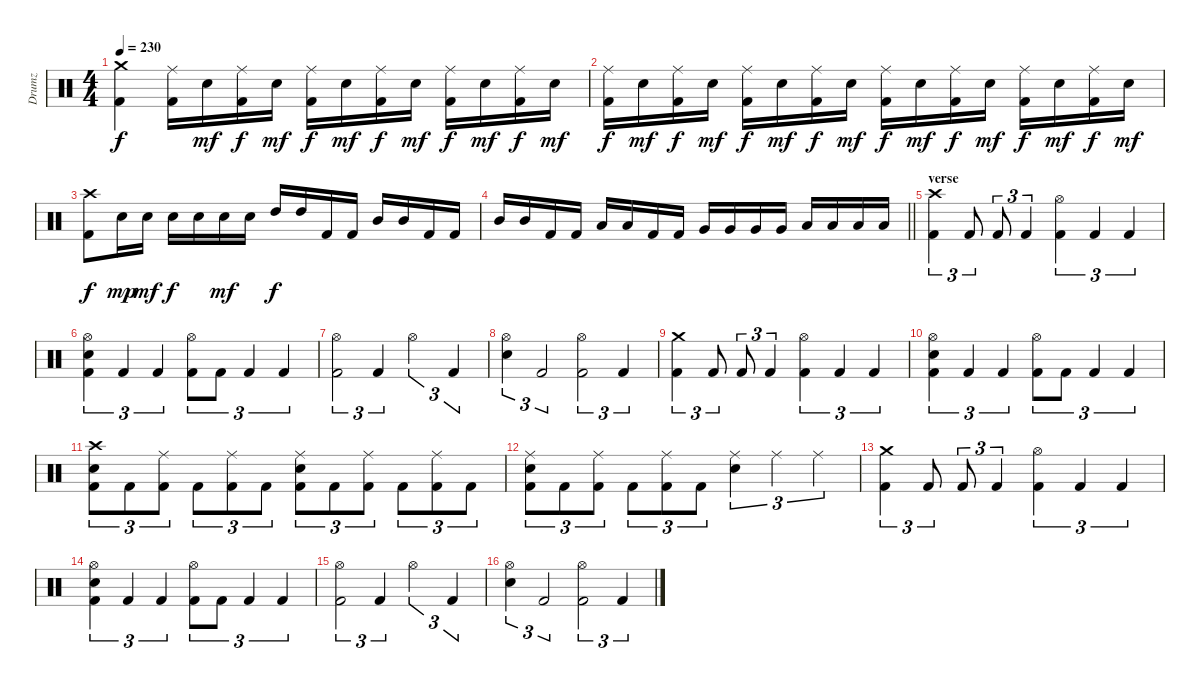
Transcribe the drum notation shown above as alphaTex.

\track ("Drumz" "Drumz") {instrument percussion}
\staff {score}
\articulation defaults
\ts (4 4)
\tempo 230
\clef neutral
\ks c
("Crash medium (hit)" "Kick (hit) 2").4{dy f} ("Ride (middle)" "Kick (hit) 2").16 "Electric Snare (hit)".16{dy mf} ("Ride (middle)" "Kick (hit) 2").16{dy f} "Electric Snare (hit)".16{dy mf} ("Ride (middle)" "Kick (hit) 2").16{dy f} "Electric Snare (hit)".16{dy mf} ("Ride (middle)" "Kick (hit) 2").16{dy f} "Electric Snare (hit)".16{dy mf} ("Ride (middle)" "Kick (hit) 2").16{dy f} "Electric Snare (hit)".16{dy mf} ("Ride (middle)" "Kick (hit) 2").16{dy f} "Electric Snare (hit)".16{dy mf} |
("Ride (middle)" "Kick (hit) 2").16{dy f} "Electric Snare (hit)".16{dy mf} ("Ride (middle)" "Kick (hit) 2").16{dy f} "Electric Snare (hit)".16{dy mf} ("Ride (middle)" "Kick (hit) 2").16{dy f} "Electric Snare (hit)".16{dy mf} ("Ride (middle)" "Kick (hit) 2").16{dy f} "Electric Snare (hit)".16{dy mf} ("Ride (middle)" "Kick (hit) 2").16{dy f} "Electric Snare (hit)".16{dy mf} ("Ride (middle)" "Kick (hit) 2").16{dy f} "Electric Snare (hit)".16{dy mf} ("Ride (middle)" "Kick (hit) 2").16{dy f} "Electric Snare (hit)".16{dy mf} ("Ride (middle)" "Kick (hit) 2").16{dy f} "Electric Snare (hit)".16{dy mf} |
("Crash high (hit)" "Kick (hit) 2").8{dy f} "Electric Snare (hit)".16{dy mp} "Electric Snare (hit)".16{dy mf} "Electric Snare (hit)".16{dy f} "Electric Snare (hit)".16 "Electric Snare (hit)".16{dy mf} "Electric Snare (hit)".16 "High Tom (hit)".16{dy f} "High Tom (hit)".16 "Kick (hit) 2".16 "Kick (hit) 2".16 "Mid Tom (hit)".16 "Mid Tom (hit)".16 "Kick (hit) 2".16 "Kick (hit) 2".16 |
\barLineRight lightlight "Mid Tom (hit)".16 "Mid Tom (hit)".16 "Kick (hit) 2".16 "Kick (hit) 2".16 "Low Tom (hit)".16 "Low Tom (hit)".16 "Kick (hit) 2".16 "Kick (hit) 2".16 "Very Low Tom (hit)".16 "Very Low Tom (hit)".16 "Very Low Tom (hit)".16 "Very Low Tom (hit)".16 "Low Floor Tom (hit)".16 "Low Floor Tom (hit)".16 "Low Floor Tom (hit)".16 "Low Floor Tom (hit)".16
|
\section ("" "verse")
("Crash high (hit)" "Kick (hit) 2").4{tu (3 2)} "Kick (hit) 2".8{tu (3 2)} "Kick (hit) 2".8{tu (3 2)} "Kick (hit) 2".4{tu (3 2)} ("Hi-Hat (open)" "Kick (hit) 2").4{tu (3 2)} "Kick (hit) 2".4{tu (3 2)} "Kick (hit) 2".4{tu (3 2)} |
("Hi-Hat (open)" "Electric Snare (hit)" "Kick (hit) 2").4{tu (3 2)} "Kick (hit) 2".4{tu (3 2)} "Kick (hit) 2".4{tu (3 2)} ("Hi-Hat (open)" "Kick (hit) 2").8{tu (3 2)} "Kick (hit) 2".8{tu (3 2)} "Kick (hit) 2".4{tu (3 2)} "Kick (hit) 2".4{tu (3 2)} |
("Hi-Hat (open)" "Kick (hit) 2").2{tu (3 2)} "Kick (hit) 2".4{tu (3 2)} "Hi-Hat (open)".2{tu (3 2)} "Kick (hit) 2".4{tu (3 2)} |
("Hi-Hat (open)" "Electric Snare (hit)").4{tu (3 2)} "Kick (hit) 2".2{tu (3 2)} ("Hi-Hat (open)" "Kick (hit) 2").2{tu (3 2)} "Kick (hit) 2".4{tu (3 2)} |
("Crash medium (hit)" "Kick (hit) 2").4{tu (3 2)} "Kick (hit) 2".8{tu (3 2)} "Kick (hit) 2".8{tu (3 2)} "Kick (hit) 2".4{tu (3 2)} ("Hi-Hat (open)" "Kick (hit) 2").4{tu (3 2)} "Kick (hit) 2".4{tu (3 2)} "Kick (hit) 2".4{tu (3 2)} |
("Hi-Hat (open)" "Electric Snare (hit)" "Kick (hit) 2").4{tu (3 2)} "Kick (hit) 2".4{tu (3 2)} "Kick (hit) 2".4{tu (3 2)} ("Hi-Hat (open)" "Kick (hit) 2").8{tu (3 2)} "Kick (hit) 2".8{tu (3 2)} "Kick (hit) 2".4{tu (3 2)} "Kick (hit) 2".4{tu (3 2)} |
("Crash high (hit)" "Electric Snare (hit)" "Kick (hit) 2").8{tu (3 2)} "Kick (hit) 2".8{tu (3 2)} ("Ride (middle)" "Kick (hit) 2").8{tu (3 2)} "Kick (hit) 2".8{tu (3 2)} ("Ride (middle)" "Kick (hit) 2").8{tu (3 2)} "Kick (hit) 2".8{tu (3 2)} ("Ride (middle)" "Electric Snare (hit)" "Kick (hit) 2").8{tu (3 2)} "Kick (hit) 2".8{tu (3 2)} ("Ride (middle)" "Kick (hit) 2").8{tu (3 2)} "Kick (hit) 2".8{tu (3 2)} ("Ride (middle)" "Kick (hit) 2").8{tu (3 2)} "Kick (hit) 2".8{tu (3 2)} |
("Ride (middle)" "Electric Snare (hit)" "Kick (hit) 2").8{tu (3 2)} "Kick (hit) 2".8{tu (3 2)} ("Ride (middle)" "Kick (hit) 2").8{tu (3 2)} "Kick (hit) 2".8{tu (3 2)} ("Ride (middle)" "Kick (hit) 2").8{tu (3 2)} "Kick (hit) 2".8{tu (3 2)} ("Ride (middle)" "Electric Snare (hit)").4{tu (3 2)} "Ride (middle)".4{tu (3 2)} "Ride (middle)".4{tu (3 2)} |
("Crash medium (hit)" "Kick (hit) 2").4{tu (3 2)} "Kick (hit) 2".8{tu (3 2)} "Kick (hit) 2".8{tu (3 2)} "Kick (hit) 2".4{tu (3 2)} ("Hi-Hat (open)" "Kick (hit) 2").4{tu (3 2)} "Kick (hit) 2".4{tu (3 2)} "Kick (hit) 2".4{tu (3 2)} |
("Hi-Hat (open)" "Electric Snare (hit)" "Kick (hit) 2").4{tu (3 2)} "Kick (hit) 2".4{tu (3 2)} "Kick (hit) 2".4{tu (3 2)} ("Hi-Hat (open)" "Kick (hit) 2").8{tu (3 2)} "Kick (hit) 2".8{tu (3 2)} "Kick (hit) 2".4{tu (3 2)} "Kick (hit) 2".4{tu (3 2)} |
("Hi-Hat (open)" "Kick (hit) 2").2{tu (3 2)} "Kick (hit) 2".4{tu (3 2)} "Hi-Hat (open)".2{tu (3 2)} "Kick (hit) 2".4{tu (3 2)} |
("Hi-Hat (open)" "Electric Snare (hit)").4{tu (3 2)} "Kick (hit) 2".2{tu (3 2)} ("Hi-Hat (open)" "Kick (hit) 2").2{tu (3 2)} "Kick (hit) 2".4{tu (3 2)}
